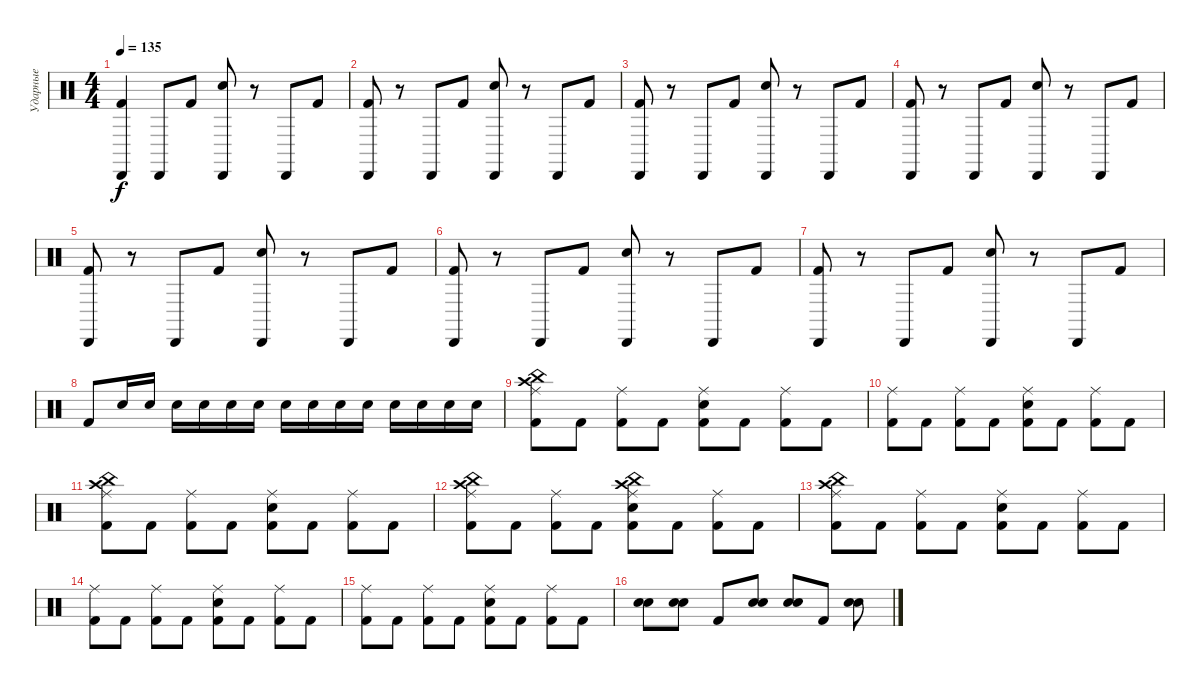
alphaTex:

\track ("Ударные" "Ударные") {instrument percussion}
\staff {score}
\articulation defaults
\ts (4 4)
\tempo 135
\clef neutral
\ks c
("Cabasa (hit)" "Kick (hit) 2").4{dy f} "Cabasa (hit)".8 "Kick (hit) 2".8 ("Electric Snare (hit)" "Cabasa (hit)").8 r.8 "Cabasa (hit)".8 "Kick (hit) 2".8 |
("Cabasa (hit)" "Kick (hit) 2").8 r.8 "Cabasa (hit)".8 "Kick (hit) 2".8 ("Electric Snare (hit)" "Cabasa (hit)").8 r.8 "Cabasa (hit)".8 "Kick (hit) 2".8 |
("Cabasa (hit)" "Kick (hit) 2").8 r.8 "Cabasa (hit)".8 "Kick (hit) 2".8 ("Electric Snare (hit)" "Cabasa (hit)").8 r.8 "Cabasa (hit)".8 "Kick (hit) 2".8 |
("Cabasa (hit)" "Kick (hit) 2").8 r.8 "Cabasa (hit)".8 "Kick (hit) 2".8 ("Electric Snare (hit)" "Cabasa (hit)").8 r.8 "Cabasa (hit)".8 "Kick (hit) 2".8 |
("Cabasa (hit)" "Kick (hit) 2").8 r.8 "Cabasa (hit)".8 "Kick (hit) 2".8 ("Electric Snare (hit)" "Cabasa (hit)").8 r.8 "Cabasa (hit)".8 "Kick (hit) 2".8 |
("Cabasa (hit)" "Kick (hit) 2").8 r.8 "Cabasa (hit)".8 "Kick (hit) 2".8 ("Electric Snare (hit)" "Cabasa (hit)").8 r.8 "Cabasa (hit)".8 "Kick (hit) 2".8 |
("Cabasa (hit)" "Kick (hit) 2").8 r.8 "Cabasa (hit)".8 "Kick (hit) 2".8 ("Electric Snare (hit)" "Cabasa (hit)").8 r.8 "Cabasa (hit)".8 "Kick (hit) 2".8 |
"Kick (hit) 2".8 "Electric Snare (hit)".16 "Electric Snare (hit)".16 "Electric Snare (hit)".16 "Electric Snare (hit)".16 "Electric Snare (hit)".16 "Electric Snare (hit)".16 "Electric Snare (hit)".16 "Electric Snare (hit)".16 "Electric Snare (hit)".16 "Electric Snare (hit)".16 "Snare (hit) 2".16 "Snare (hit) 2".16 "Snare (hit) 2".16 "Snare (hit) 2".16 |
("Kick (hit) 2" "Ride (middle)" "Crash high (hit)" "China (hit)").8 "Kick (hit) 2".8 ("Kick (hit) 2" "Ride (middle)").8 "Kick (hit) 2".8 ("Kick (hit) 2" "Electric Snare (hit)" "Ride (middle)").8 "Kick (hit) 2".8 ("Kick (hit) 2" "Ride (middle)").8 "Kick (hit) 2".8 |
("Kick (hit) 2" "Ride (middle)").8 "Kick (hit) 2".8 ("Kick (hit) 2" "Ride (middle)").8 "Kick (hit) 2".8 ("Kick (hit) 2" "Electric Snare (hit)" "Ride (middle)").8 "Kick (hit) 2".8 ("Kick (hit) 2" "Ride (middle)").8 "Kick (hit) 2".8 |
("Kick (hit) 2" "Ride (middle)" "China (hit)" "Crash high (hit)").8 "Kick (hit) 2".8 ("Kick (hit) 2" "Ride (middle)").8 "Kick (hit) 2".8 ("Kick (hit) 2" "Electric Snare (hit)" "Ride (middle)").8 "Kick (hit) 2".8 ("Kick (hit) 2" "Ride (middle)").8 "Kick (hit) 2".8 |
("Kick (hit) 2" "Ride (middle)" "Crash high (hit)" "China (hit)").8 "Kick (hit) 2".8 ("Kick (hit) 2" "Ride (middle)").8 "Kick (hit) 2".8 ("Kick (hit) 2" "Electric Snare (hit)" "Ride (middle)" "China (hit)" "Crash high (hit)").8 "Kick (hit) 2".8 ("Kick (hit) 2" "Ride (middle)").8 "Kick (hit) 2".8 |
("Kick (hit) 2" "Ride (middle)" "Crash high (hit)" "China (hit)").8 "Kick (hit) 2".8 ("Kick (hit) 2" "Ride (middle)").8 "Kick (hit) 2".8 ("Kick (hit) 2" "Electric Snare (hit)" "Ride (middle)").8 "Kick (hit) 2".8 ("Kick (hit) 2" "Ride (middle)").8 "Kick (hit) 2".8 |
("Kick (hit) 2" "Ride (middle)").8 "Kick (hit) 2".8 ("Kick (hit) 2" "Ride (middle)").8 "Kick (hit) 2".8 ("Kick (hit) 2" "Electric Snare (hit)" "Ride (middle)").8 "Kick (hit) 2".8 ("Kick (hit) 2" "Ride (middle)").8 "Kick (hit) 2".8 |
("Kick (hit) 2" "Ride (middle)").8 "Kick (hit) 2".8 ("Kick (hit) 2" "Ride (middle)").8 "Kick (hit) 2".8 ("Kick (hit) 2" "Electric Snare (hit)" "Ride (middle)").8 "Kick (hit) 2".8 ("Kick (hit) 2" "Ride (middle)").8 "Kick (hit) 2".8 |
("Snare (hit) 2" "Snare (hit) 2").8 ("Snare (hit) 2" "Snare (hit) 2").8 "Kick (hit) 2".8 ("Snare (hit) 2" "Snare (hit) 2").8 ("Snare (hit) 2" "Snare (hit) 2").8 "Kick (hit) 2".8 ("Snare (hit) 2" "Snare (hit) 2").8
